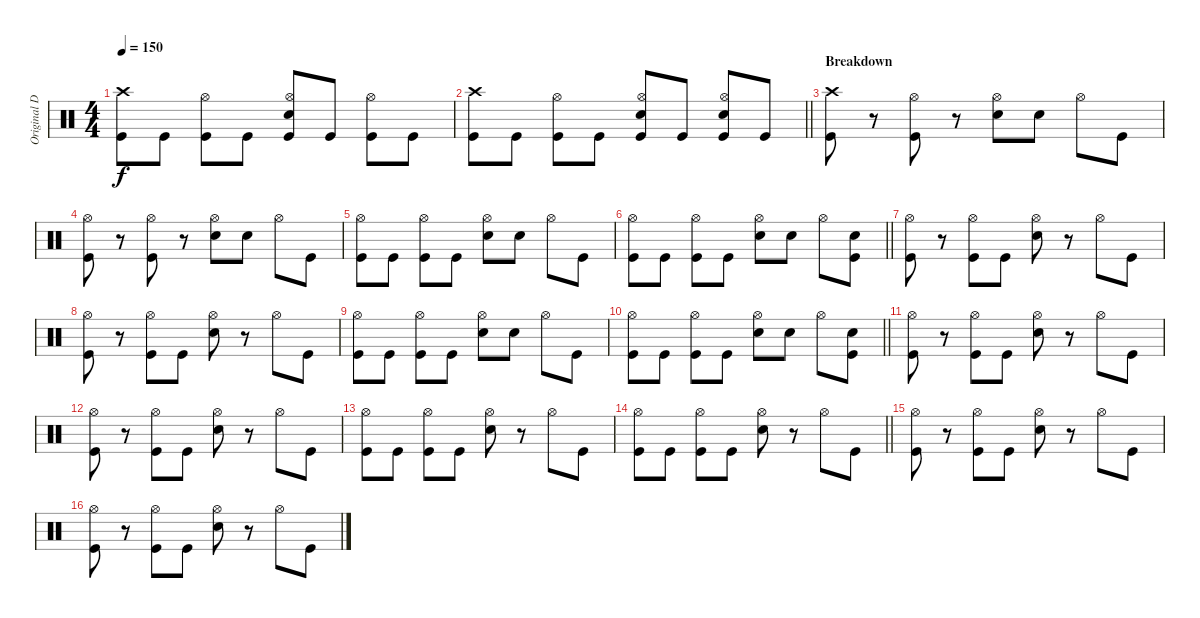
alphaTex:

\track ("Original Drums" "Original D") {instrument percussion}
\staff {score}
\articulation defaults
\ts (4 4)
\tempo 150
\clef neutral
\ks c
("Crash high (hit)" "Kick (hit)").8{dy f} "Kick (hit)".8 ("Hi-Hat (open)" "Kick (hit)").8 "Kick (hit)".8 ("Hi-Hat (open)" "Snare (hit) 2" "Kick (hit)").8 "Kick (hit)".8 ("Hi-Hat (open)" "Kick (hit)").8 "Kick (hit)".8 |
\barLineRight lightlight
("Crash high (hit)" "Kick (hit)").8 "Kick (hit)".8 ("Hi-Hat (open)" "Kick (hit)").8 "Kick (hit)".8 ("Hi-Hat (open)" "Snare (hit) 2" "Kick (hit)").8 "Kick (hit)".8 ("Hi-Hat (open)" "Snare (hit) 2" "Kick (hit)").8 "Kick (hit)".8 |
\section ("" "Breakdown")
("Crash high (hit)" "Kick (hit)").8 r.8 ("Hi-Hat (open)" "Kick (hit)").8 r.8 ("Hi-Hat (open)" "Snare (hit) 2").8 "Snare (hit) 2".8 "Hi-Hat (open)".8 "Kick (hit)".8 |
("Hi-Hat (open)" "Kick (hit)").8 r.8 ("Hi-Hat (open)" "Kick (hit)").8 r.8 ("Hi-Hat (open)" "Snare (hit) 2").8 "Snare (hit) 2".8 "Hi-Hat (open)".8 "Kick (hit)".8 |
("Hi-Hat (open)" "Kick (hit)").8 "Kick (hit)".8 ("Hi-Hat (open)" "Kick (hit)").8 "Kick (hit)".8 ("Hi-Hat (open)" "Snare (hit) 2").8 "Snare (hit) 2".8 "Hi-Hat (open)".8 "Kick (hit)".8 |
\barLineRight lightlight
("Hi-Hat (open)" "Kick (hit)").8 "Kick (hit)".8 ("Hi-Hat (open)" "Kick (hit)").8 "Kick (hit)".8 ("Hi-Hat (open)" "Snare (hit) 2").8 "Snare (hit) 2".8 "Hi-Hat (open)".8 ("Snare (hit) 2" "Kick (hit)").8 |
("Hi-Hat (open)" "Kick (hit)").8 r.8 ("Hi-Hat (open)" "Kick (hit)").8 "Kick (hit)".8 ("Hi-Hat (open)" "Snare (hit) 2").8 r.8 "Hi-Hat (open)".8 "Kick (hit)".8 |
("Hi-Hat (open)" "Kick (hit)").8 r.8 ("Hi-Hat (open)" "Kick (hit)").8 "Kick (hit)".8 ("Hi-Hat (open)" "Snare (hit) 2").8 r.8 "Hi-Hat (open)".8 "Kick (hit)".8 |
("Hi-Hat (open)" "Kick (hit)").8 "Kick (hit)".8 ("Hi-Hat (open)" "Kick (hit)").8 "Kick (hit)".8 ("Hi-Hat (open)" "Snare (hit) 2").8 "Snare (hit) 2".8 "Hi-Hat (open)".8 "Kick (hit)".8 |
\barLineRight lightlight
("Hi-Hat (open)" "Kick (hit)").8 "Kick (hit)".8 ("Hi-Hat (open)" "Kick (hit)").8 "Kick (hit)".8 ("Hi-Hat (open)" "Snare (hit) 2").8 "Snare (hit) 2".8 "Hi-Hat (open)".8 ("Snare (hit) 2" "Kick (hit)").8 |
("Hi-Hat (open)" "Kick (hit)").8 r.8 ("Hi-Hat (open)" "Kick (hit)").8 "Kick (hit)".8 ("Hi-Hat (open)" "Snare (hit) 2").8 r.8 "Hi-Hat (open)".8 "Kick (hit)".8 |
("Hi-Hat (open)" "Kick (hit)").8 r.8 ("Hi-Hat (open)" "Kick (hit)").8 "Kick (hit)".8 ("Hi-Hat (open)" "Snare (hit) 2").8 r.8 "Hi-Hat (open)".8 "Kick (hit)".8 |
("Hi-Hat (open)" "Kick (hit)").8 "Kick (hit)".8 ("Hi-Hat (open)" "Kick (hit)").8 "Kick (hit)".8 ("Hi-Hat (open)" "Snare (hit) 2").8 r.8 "Hi-Hat (open)".8 "Kick (hit)".8 |
\barLineRight lightlight
("Hi-Hat (open)" "Kick (hit)").8 "Kick (hit)".8 ("Hi-Hat (open)" "Kick (hit)").8 "Kick (hit)".8 ("Hi-Hat (open)" "Snare (hit) 2").8 r.8 "Hi-Hat (open)".8 "Kick (hit)".8 |
("Hi-Hat (open)" "Kick (hit)").8 r.8 ("Hi-Hat (open)" "Kick (hit)").8 "Kick (hit)".8 ("Hi-Hat (open)" "Snare (hit) 2").8 r.8 "Hi-Hat (open)".8 "Kick (hit)".8 |
("Hi-Hat (open)" "Kick (hit)").8 r.8 ("Hi-Hat (open)" "Kick (hit)").8 "Kick (hit)".8 ("Hi-Hat (open)" "Snare (hit) 2").8 r.8 "Hi-Hat (open)".8 "Kick (hit)".8
